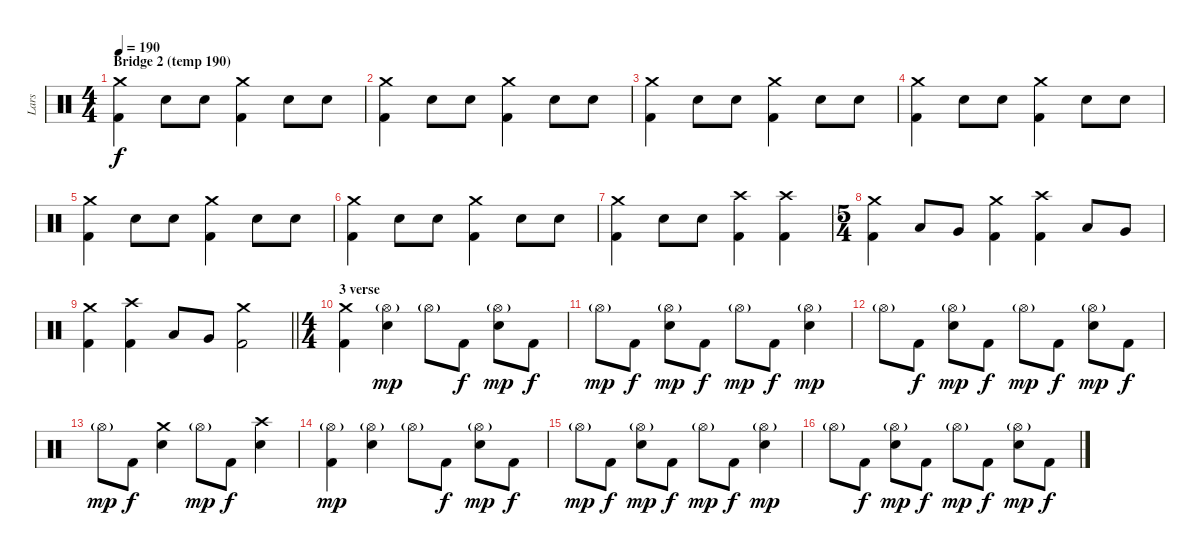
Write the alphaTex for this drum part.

\track ("Lars" "Lars") {instrument percussion}
\staff {score}
\articulation defaults
\ts (4 4)
\section ("" "Bridge 2 (temp 190)")
\tempo 190
\clef neutral
\ks c
("Crash medium (hit)" "Kick (hit) 2").4{dy f} "Electric Snare (hit)".8 "Electric Snare (hit)".8 ("Crash medium (hit)" "Kick (hit) 2").4 "Electric Snare (hit)".8 "Electric Snare (hit)".8 |
("Crash medium (hit)" "Kick (hit) 2").4 "Electric Snare (hit)".8 "Electric Snare (hit)".8 ("Crash medium (hit)" "Kick (hit) 2").4 "Electric Snare (hit)".8 "Electric Snare (hit)".8 |
("Crash medium (hit)" "Kick (hit) 2").4 "Electric Snare (hit)".8 "Electric Snare (hit)".8 ("Crash medium (hit)" "Kick (hit) 2").4 "Electric Snare (hit)".8 "Electric Snare (hit)".8 |
("Crash medium (hit)" "Kick (hit) 2").4 "Electric Snare (hit)".8 "Electric Snare (hit)".8 ("Crash medium (hit)" "Kick (hit) 2").4 "Electric Snare (hit)".8 "Electric Snare (hit)".8 |
("Crash medium (hit)" "Kick (hit) 2").4 "Electric Snare (hit)".8 "Electric Snare (hit)".8 ("Crash medium (hit)" "Kick (hit) 2").4 "Electric Snare (hit)".8 "Electric Snare (hit)".8 |
("Crash medium (hit)" "Kick (hit) 2").4 "Electric Snare (hit)".8 "Electric Snare (hit)".8 ("Crash medium (hit)" "Kick (hit) 2").4 "Electric Snare (hit)".8 "Electric Snare (hit)".8 |
("Crash medium (hit)" "Kick (hit) 2").4 "Electric Snare (hit)".8 "Electric Snare (hit)".8 ("Crash high (hit)" "Kick (hit) 2").4 ("Crash high (hit)" "Kick (hit) 2").4 |
\ts (5 4)
("Crash medium (hit)" "Kick (hit) 2").4 "Low Tom (hit)".8 "Very Low Tom (hit)".8 ("Crash medium (hit)" "Kick (hit) 2").4 ("Crash high (hit)" "Kick (hit) 2").4 "Low Tom (hit)".8 "Very Low Tom (hit)".8 |
\barLineRight lightlight
("Crash medium (hit)" "Kick (hit) 2").4 ("Crash high (hit)" "Kick (hit) 2").4 "Low Tom (hit)".8 "Very Low Tom (hit)".8 ("Crash medium (hit)" "Kick (hit) 2").2 |
\ts (4 4)
\section ("" "3 verse")
("Crash medium (hit)" "Kick (hit) 2").4 ("Hi-Hat (open)"{g} "Electric Snare (hit)").4{dy mp} "Hi-Hat (open)"{g}.8 "Kick (hit) 2".8{dy f} ("Hi-Hat (open)"{g} "Electric Snare (hit)").8{dy mp} "Kick (hit) 2".8{dy f} |
"Hi-Hat (open)"{g}.8{dy mp} "Kick (hit) 2".8{dy f} ("Hi-Hat (open)"{g} "Electric Snare (hit)").8{dy mp} "Kick (hit) 2".8{dy f} "Hi-Hat (open)"{g}.8{dy mp} "Kick (hit) 2".8{dy f} ("Hi-Hat (open)"{g} "Electric Snare (hit)").4{dy mp} |
"Hi-Hat (open)"{g}.8 "Kick (hit) 2".8{dy f} ("Hi-Hat (open)"{g} "Electric Snare (hit)").8{dy mp} "Kick (hit) 2".8{dy f} "Hi-Hat (open)"{g}.8{dy mp} "Kick (hit) 2".8{dy f} ("Hi-Hat (open)"{g} "Electric Snare (hit)").8{dy mp} "Kick (hit) 2".8{dy f} |
"Hi-Hat (open)"{g}.8{dy mp} "Kick (hit) 2".8{dy f} ("Crash medium (hit)" "Electric Snare (hit)").4 "Hi-Hat (open)"{g}.8{dy mp} "Kick (hit) 2".8{dy f} ("Crash high (hit)" "Electric Snare (hit)").4 |
("Hi-Hat (open)"{g} "Kick (hit) 2").4{dy mp} ("Hi-Hat (open)"{g} "Electric Snare (hit)").4 "Hi-Hat (open)"{g}.8 "Kick (hit) 2".8{dy f} ("Hi-Hat (open)"{g} "Electric Snare (hit)").8{dy mp} "Kick (hit) 2".8{dy f} |
"Hi-Hat (open)"{g}.8{dy mp} "Kick (hit) 2".8{dy f} ("Hi-Hat (open)"{g} "Electric Snare (hit)").8{dy mp} "Kick (hit) 2".8{dy f} "Hi-Hat (open)"{g}.8{dy mp} "Kick (hit) 2".8{dy f} ("Hi-Hat (open)"{g} "Electric Snare (hit)").4{dy mp} |
"Hi-Hat (open)"{g}.8 "Kick (hit) 2".8{dy f} ("Hi-Hat (open)"{g} "Electric Snare (hit)").8{dy mp} "Kick (hit) 2".8{dy f} "Hi-Hat (open)"{g}.8{dy mp} "Kick (hit) 2".8{dy f} ("Hi-Hat (open)"{g} "Electric Snare (hit)").8{dy mp} "Kick (hit) 2".8{dy f}
